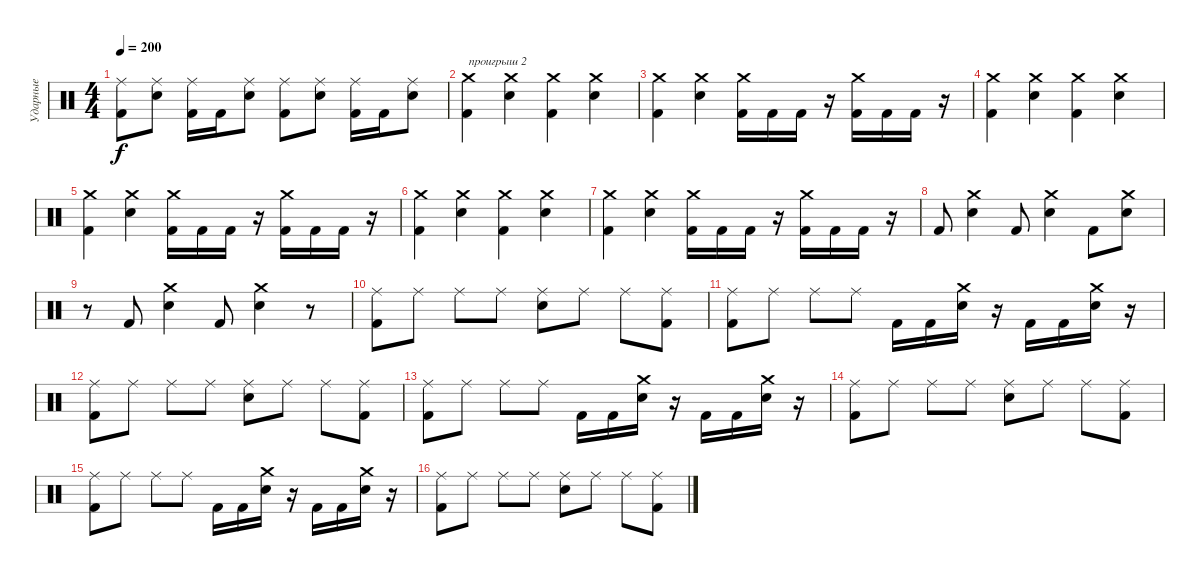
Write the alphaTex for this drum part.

\track ("Ударные" "Ударные") {instrument percussion}
\staff {score}
\articulation defaults
\ts (4 4)
\tempo 200
\clef neutral
\ks c
("Kick (hit) 2" "Ride (middle)").8{dy f} ("Electric Snare (hit)" "Ride (middle)").8 ("Kick (hit) 2" "Ride (middle)").16 "Kick (hit) 2".16 ("Electric Snare (hit)" "Ride (middle)").8 ("Kick (hit) 2" "Ride (middle)").8 ("Electric Snare (hit)" "Ride (middle)").8 ("Kick (hit) 2" "Ride (middle)").16 "Kick (hit) 2".16 ("Electric Snare (hit)" "Ride (middle)").8 |
("Kick (hit) 2" "Crash medium (hit)").4{txt "проигрыш 2"} ("Snare (hit) 2" "Crash medium (hit)").4 ("Kick (hit) 2" "Crash medium (hit)").4 ("Snare (hit) 2" "Crash medium (hit)").4 |
("Kick (hit) 2" "Crash medium (hit)").4 ("Snare (hit) 2" "Crash medium (hit)").4 ("Kick (hit) 2" "Crash medium (hit)").16 "Kick (hit) 2".16 "Kick (hit) 2".16 r.16 ("Kick (hit) 2" "Crash medium (hit)").16 "Kick (hit) 2".16 "Kick (hit) 2".16 r.16 |
("Kick (hit) 2" "Crash medium (hit)").4 ("Snare (hit) 2" "Crash medium (hit)").4 ("Kick (hit) 2" "Crash medium (hit)").4 ("Snare (hit) 2" "Crash medium (hit)").4 |
("Kick (hit) 2" "Crash medium (hit)").4 ("Snare (hit) 2" "Crash medium (hit)").4 ("Kick (hit) 2" "Crash medium (hit)").16 "Kick (hit) 2".16 "Kick (hit) 2".16 r.16 ("Kick (hit) 2" "Crash medium (hit)").16 "Kick (hit) 2".16 "Kick (hit) 2".16 r.16 |
("Kick (hit) 2" "Crash medium (hit)").4 ("Snare (hit) 2" "Crash medium (hit)").4 ("Kick (hit) 2" "Crash medium (hit)").4 ("Snare (hit) 2" "Crash medium (hit)").4 |
("Kick (hit) 2" "Crash medium (hit)").4 ("Snare (hit) 2" "Crash medium (hit)").4 ("Kick (hit) 2" "Crash medium (hit)").16 "Kick (hit) 2".16 "Kick (hit) 2".16 r.16 ("Kick (hit) 2" "Crash medium (hit)").16 "Kick (hit) 2".16 "Kick (hit) 2".16 r.16 |
"Kick (hit) 2".8 ("Snare (hit) 2" "Crash medium (hit)").4 "Kick (hit) 2".8 ("Snare (hit) 2" "Crash medium (hit)").4 "Kick (hit) 2".8 ("Snare (hit) 2" "Crash medium (hit)").8 |
r.8 "Kick (hit) 2".8 ("Snare (hit) 2" "Crash medium (hit)").4 "Kick (hit) 2".8 ("Snare (hit) 2" "Crash medium (hit)").4 r.8 |
("Ride (middle)" "Kick (hit) 2").8 "Ride (middle)".8 "Ride (middle)".8 "Ride (middle)".8 ("Ride (middle)" "Snare (hit) 2").8 "Ride (middle)".8 "Ride (middle)".8 ("Ride (middle)" "Kick (hit) 2").8 |
("Ride (middle)" "Kick (hit) 2").8 "Ride (middle)".8 "Ride (middle)".8 "Ride (middle)".8 "Kick (hit) 2".16 "Kick (hit) 2".16 ("Snare (hit) 2" "Crash medium (hit)").16 r.16 "Kick (hit) 2".16 "Kick (hit) 2".16 ("Snare (hit) 2" "Crash medium (hit)").16 r.16 |
("Ride (middle)" "Kick (hit) 2").8 "Ride (middle)".8 "Ride (middle)".8 "Ride (middle)".8 ("Ride (middle)" "Snare (hit) 2").8 "Ride (middle)".8 "Ride (middle)".8 ("Ride (middle)" "Kick (hit) 2").8 |
("Ride (middle)" "Kick (hit) 2").8 "Ride (middle)".8 "Ride (middle)".8 "Ride (middle)".8 "Kick (hit) 2".16 "Kick (hit) 2".16 ("Snare (hit) 2" "Crash medium (hit)").16 r.16 "Kick (hit) 2".16 "Kick (hit) 2".16 ("Snare (hit) 2" "Crash medium (hit)").16 r.16 |
("Ride (middle)" "Kick (hit) 2").8 "Ride (middle)".8 "Ride (middle)".8 "Ride (middle)".8 ("Ride (middle)" "Snare (hit) 2").8 "Ride (middle)".8 "Ride (middle)".8 ("Ride (middle)" "Kick (hit) 2").8 |
("Ride (middle)" "Kick (hit) 2").8 "Ride (middle)".8 "Ride (middle)".8 "Ride (middle)".8 "Kick (hit) 2".16 "Kick (hit) 2".16 ("Snare (hit) 2" "Crash medium (hit)").16 r.16 "Kick (hit) 2".16 "Kick (hit) 2".16 ("Snare (hit) 2" "Crash medium (hit)").16 r.16 |
("Ride (middle)" "Kick (hit) 2").8 "Ride (middle)".8 "Ride (middle)".8 "Ride (middle)".8 ("Ride (middle)" "Snare (hit) 2").8 "Ride (middle)".8 "Ride (middle)".8 ("Ride (middle)" "Kick (hit) 2").8
